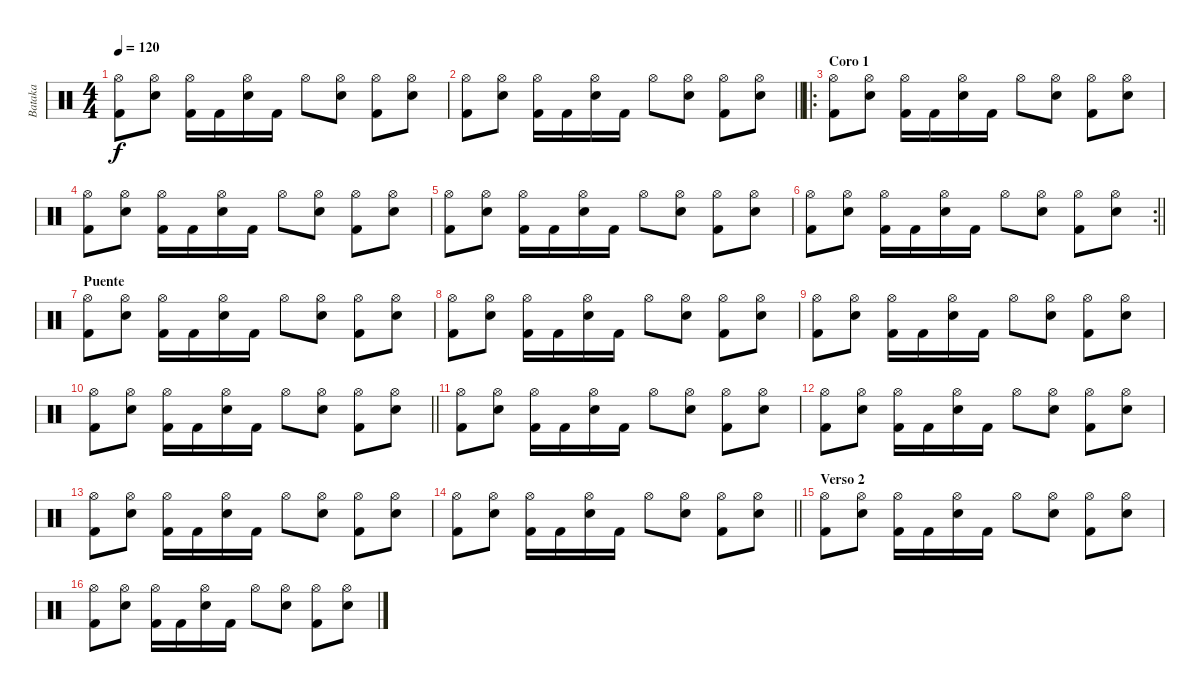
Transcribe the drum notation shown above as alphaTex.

\track ("Bataka" "Bataka") {instrument percussion}
\staff {score}
\articulation defaults
\ts (4 4)
\tempo 120
\clef neutral
\ks c
("Hi-Hat (open)" "Kick (hit) 2").8{dy f} ("Hi-Hat (open)" "Electric Snare (hit)").8 ("Hi-Hat (open)" "Kick (hit) 2").16 "Kick (hit) 2".16 ("Hi-Hat (open)" "Electric Snare (hit)").16 "Kick (hit) 2".16 "Hi-Hat (open)".8 ("Hi-Hat (open)" "Electric Snare (hit)").8 ("Hi-Hat (open)" "Kick (hit) 2").8 ("Hi-Hat (open)" "Electric Snare (hit)").8 |
\barLineRight lightlight
("Hi-Hat (open)" "Kick (hit) 2").8 ("Hi-Hat (open)" "Electric Snare (hit)").8 ("Hi-Hat (open)" "Kick (hit) 2").16 "Kick (hit) 2".16 ("Hi-Hat (open)" "Electric Snare (hit)").16 "Kick (hit) 2".16 "Hi-Hat (open)".8 ("Hi-Hat (open)" "Electric Snare (hit)").8 ("Hi-Hat (open)" "Kick (hit) 2").8 ("Hi-Hat (open)" "Electric Snare (hit)").8 |
\ro
\section ("" "Coro 1")
("Hi-Hat (open)" "Kick (hit) 2").8 ("Hi-Hat (open)" "Electric Snare (hit)").8 ("Hi-Hat (open)" "Kick (hit) 2").16 "Kick (hit) 2".16 ("Hi-Hat (open)" "Electric Snare (hit)").16 "Kick (hit) 2".16 "Hi-Hat (open)".8 ("Hi-Hat (open)" "Electric Snare (hit)").8 ("Hi-Hat (open)" "Kick (hit) 2").8 ("Hi-Hat (open)" "Electric Snare (hit)").8 |
("Hi-Hat (open)" "Kick (hit) 2").8 ("Hi-Hat (open)" "Electric Snare (hit)").8 ("Hi-Hat (open)" "Kick (hit) 2").16 "Kick (hit) 2".16 ("Hi-Hat (open)" "Electric Snare (hit)").16 "Kick (hit) 2".16 "Hi-Hat (open)".8 ("Hi-Hat (open)" "Electric Snare (hit)").8 ("Hi-Hat (open)" "Kick (hit) 2").8 ("Hi-Hat (open)" "Electric Snare (hit)").8 |
("Hi-Hat (open)" "Kick (hit) 2").8 ("Hi-Hat (open)" "Electric Snare (hit)").8 ("Hi-Hat (open)" "Kick (hit) 2").16 "Kick (hit) 2".16 ("Hi-Hat (open)" "Electric Snare (hit)").16 "Kick (hit) 2".16 "Hi-Hat (open)".8 ("Hi-Hat (open)" "Electric Snare (hit)").8 ("Hi-Hat (open)" "Kick (hit) 2").8 ("Hi-Hat (open)" "Electric Snare (hit)").8 |
\rc 2
\barLineRight lightlight
("Hi-Hat (open)" "Kick (hit) 2").8 ("Hi-Hat (open)" "Electric Snare (hit)").8 ("Hi-Hat (open)" "Kick (hit) 2").16 "Kick (hit) 2".16 ("Hi-Hat (open)" "Electric Snare (hit)").16 "Kick (hit) 2".16 "Hi-Hat (open)".8 ("Hi-Hat (open)" "Electric Snare (hit)").8 ("Hi-Hat (open)" "Kick (hit) 2").8 ("Hi-Hat (open)" "Electric Snare (hit)").8 |
\section ("" "Puente")
("Hi-Hat (open)" "Kick (hit) 2").8 ("Hi-Hat (open)" "Electric Snare (hit)").8 ("Hi-Hat (open)" "Kick (hit) 2").16 "Kick (hit) 2".16 ("Hi-Hat (open)" "Electric Snare (hit)").16 "Kick (hit) 2".16 "Hi-Hat (open)".8 ("Hi-Hat (open)" "Electric Snare (hit)").8 ("Hi-Hat (open)" "Kick (hit) 2").8 ("Hi-Hat (open)" "Electric Snare (hit)").8 |
("Hi-Hat (open)" "Kick (hit) 2").8 ("Hi-Hat (open)" "Electric Snare (hit)").8 ("Hi-Hat (open)" "Kick (hit) 2").16 "Kick (hit) 2".16 ("Hi-Hat (open)" "Electric Snare (hit)").16 "Kick (hit) 2".16 "Hi-Hat (open)".8 ("Hi-Hat (open)" "Electric Snare (hit)").8 ("Hi-Hat (open)" "Kick (hit) 2").8 ("Hi-Hat (open)" "Electric Snare (hit)").8 |
("Hi-Hat (open)" "Kick (hit) 2").8 ("Hi-Hat (open)" "Electric Snare (hit)").8 ("Hi-Hat (open)" "Kick (hit) 2").16 "Kick (hit) 2".16 ("Hi-Hat (open)" "Electric Snare (hit)").16 "Kick (hit) 2".16 "Hi-Hat (open)".8 ("Hi-Hat (open)" "Electric Snare (hit)").8 ("Hi-Hat (open)" "Kick (hit) 2").8 ("Hi-Hat (open)" "Electric Snare (hit)").8 |
\barLineRight lightlight
("Hi-Hat (open)" "Kick (hit) 2").8 ("Hi-Hat (open)" "Electric Snare (hit)").8 ("Hi-Hat (open)" "Kick (hit) 2").16 "Kick (hit) 2".16 ("Hi-Hat (open)" "Electric Snare (hit)").16 "Kick (hit) 2".16 "Hi-Hat (open)".8 ("Hi-Hat (open)" "Electric Snare (hit)").8 ("Hi-Hat (open)" "Kick (hit) 2").8 ("Hi-Hat (open)" "Electric Snare (hit)").8 |
\section ("" "")
("Hi-Hat (open)" "Kick (hit) 2").8 ("Hi-Hat (open)" "Electric Snare (hit)").8 ("Hi-Hat (open)" "Kick (hit) 2").16 "Kick (hit) 2".16 ("Hi-Hat (open)" "Electric Snare (hit)").16 "Kick (hit) 2".16 "Hi-Hat (open)".8 ("Hi-Hat (open)" "Electric Snare (hit)").8 ("Hi-Hat (open)" "Kick (hit) 2").8 ("Hi-Hat (open)" "Electric Snare (hit)").8 |
("Hi-Hat (open)" "Kick (hit) 2").8 ("Hi-Hat (open)" "Electric Snare (hit)").8 ("Hi-Hat (open)" "Kick (hit) 2").16 "Kick (hit) 2".16 ("Hi-Hat (open)" "Electric Snare (hit)").16 "Kick (hit) 2".16 "Hi-Hat (open)".8 ("Hi-Hat (open)" "Electric Snare (hit)").8 ("Hi-Hat (open)" "Kick (hit) 2").8 ("Hi-Hat (open)" "Electric Snare (hit)").8 |
("Hi-Hat (open)" "Kick (hit) 2").8 ("Hi-Hat (open)" "Electric Snare (hit)").8 ("Hi-Hat (open)" "Kick (hit) 2").16 "Kick (hit) 2".16 ("Hi-Hat (open)" "Electric Snare (hit)").16 "Kick (hit) 2".16 "Hi-Hat (open)".8 ("Hi-Hat (open)" "Electric Snare (hit)").8 ("Hi-Hat (open)" "Kick (hit) 2").8 ("Hi-Hat (open)" "Electric Snare (hit)").8 |
\barLineRight lightlight
("Hi-Hat (open)" "Kick (hit) 2").8 ("Hi-Hat (open)" "Electric Snare (hit)").8 ("Hi-Hat (open)" "Kick (hit) 2").16 "Kick (hit) 2".16 ("Hi-Hat (open)" "Electric Snare (hit)").16 "Kick (hit) 2".16 "Hi-Hat (open)".8 ("Hi-Hat (open)" "Electric Snare (hit)").8 ("Hi-Hat (open)" "Kick (hit) 2").8 ("Hi-Hat (open)" "Electric Snare (hit)").8 |
\section ("" "Verso 2")
("Hi-Hat (open)" "Kick (hit) 2").8 ("Hi-Hat (open)" "Electric Snare (hit)").8 ("Hi-Hat (open)" "Kick (hit) 2").16 "Kick (hit) 2".16 ("Hi-Hat (open)" "Electric Snare (hit)").16 "Kick (hit) 2".16 "Hi-Hat (open)".8 ("Hi-Hat (open)" "Electric Snare (hit)").8 ("Hi-Hat (open)" "Kick (hit) 2").8 ("Hi-Hat (open)" "Electric Snare (hit)").8 |
("Hi-Hat (open)" "Kick (hit) 2").8 ("Hi-Hat (open)" "Electric Snare (hit)").8 ("Hi-Hat (open)" "Kick (hit) 2").16 "Kick (hit) 2".16 ("Hi-Hat (open)" "Electric Snare (hit)").16 "Kick (hit) 2".16 "Hi-Hat (open)".8 ("Hi-Hat (open)" "Electric Snare (hit)").8 ("Hi-Hat (open)" "Kick (hit) 2").8 ("Hi-Hat (open)" "Electric Snare (hit)").8
